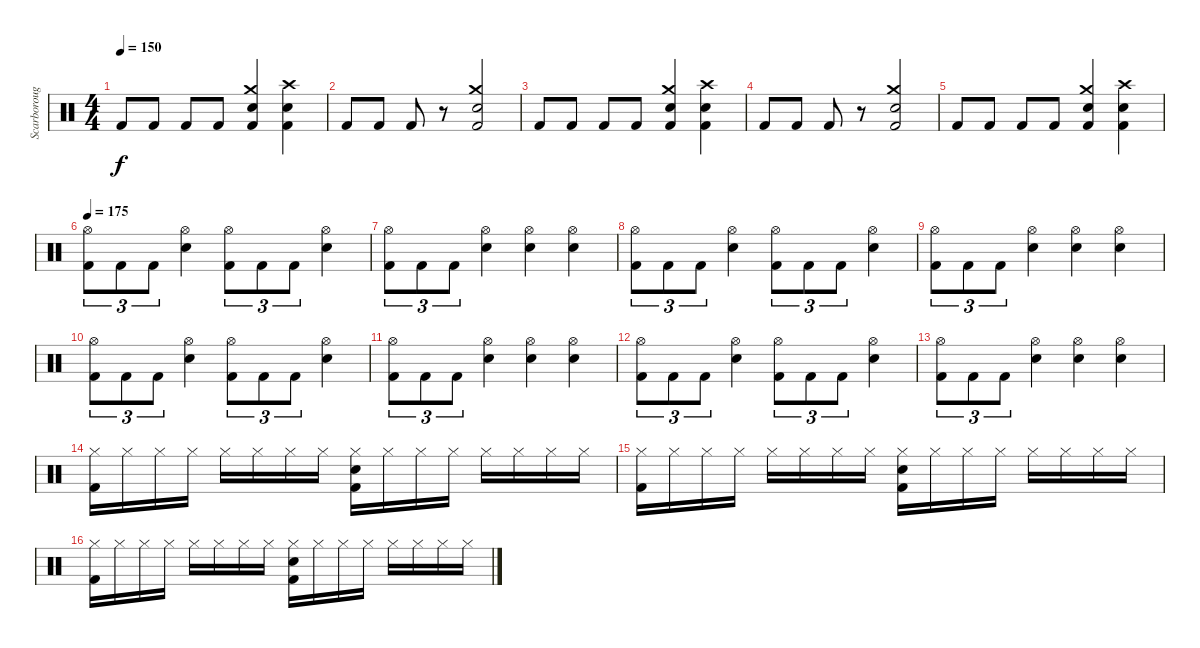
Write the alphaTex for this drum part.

\track ("Scarborough" "Scarboroug") {instrument percussion}
\staff {score}
\articulation defaults
\ts (4 4)
\tempo 150
\clef neutral
\ks c "Kick (hit) 2".8{dy f} "Kick (hit) 2".8 "Kick (hit) 2".8 "Kick (hit) 2".8
("Crash medium (hit)" "Kick (hit) 2" "Snare (hit) 2").4 ("Crash high (hit)" "Kick (hit) 2" "Snare (hit) 2").4 |
"Kick (hit) 2".8 "Kick (hit) 2".8 "Kick (hit) 2".8 r.8 ("Crash medium (hit)" "Kick (hit) 2" "Snare (hit) 2").2 |
"Kick (hit) 2".8 "Kick (hit) 2".8 "Kick (hit) 2".8 "Kick (hit) 2".8 ("Crash medium (hit)" "Kick (hit) 2" "Snare (hit) 2").4 ("Crash high (hit)" "Kick (hit) 2" "Snare (hit) 2").4 |
"Kick (hit) 2".8 "Kick (hit) 2".8 "Kick (hit) 2".8 r.8 ("Crash medium (hit)" "Kick (hit) 2" "Snare (hit) 2").2 |
"Kick (hit) 2".8 "Kick (hit) 2".8 "Kick (hit) 2".8 "Kick (hit) 2".8 ("Crash medium (hit)" "Kick (hit) 2" "Snare (hit) 2").4 ("Crash high (hit)" "Kick (hit) 2" "Snare (hit) 2").4 |
\tempo 175
("Hi-Hat (open)" "Kick (hit) 2").8{tu (3 2)} "Kick (hit) 2".8{tu (3 2)} "Kick (hit) 2".8{tu (3 2)} ("Hi-Hat (open)" "Snare (hit) 2").4 ("Hi-Hat (open)" "Kick (hit) 2").8{tu (3 2)} "Kick (hit) 2".8{tu (3 2)} "Kick (hit) 2".8{tu (3 2)} ("Hi-Hat (open)" "Snare (hit) 2").4 |
("Hi-Hat (open)" "Kick (hit) 2").8{tu (3 2)} "Kick (hit) 2".8{tu (3 2)} "Kick (hit) 2".8{tu (3 2)} ("Hi-Hat (open)" "Snare (hit) 2").4 ("Hi-Hat (open)" "Snare (hit) 2").4 ("Hi-Hat (open)" "Snare (hit) 2").4 |
("Hi-Hat (open)" "Kick (hit) 2").8{tu (3 2)} "Kick (hit) 2".8{tu (3 2)} "Kick (hit) 2".8{tu (3 2)} ("Hi-Hat (open)" "Snare (hit) 2").4 ("Hi-Hat (open)" "Kick (hit) 2").8{tu (3 2)} "Kick (hit) 2".8{tu (3 2)} "Kick (hit) 2".8{tu (3 2)} ("Hi-Hat (open)" "Snare (hit) 2").4 |
("Hi-Hat (open)" "Kick (hit) 2").8{tu (3 2)} "Kick (hit) 2".8{tu (3 2)} "Kick (hit) 2".8{tu (3 2)} ("Hi-Hat (open)" "Snare (hit) 2").4 ("Hi-Hat (open)" "Snare (hit) 2").4 ("Hi-Hat (open)" "Snare (hit) 2").4 |
("Hi-Hat (open)" "Kick (hit) 2").8{tu (3 2)} "Kick (hit) 2".8{tu (3 2)} "Kick (hit) 2".8{tu (3 2)} ("Hi-Hat (open)" "Snare (hit) 2").4 ("Hi-Hat (open)" "Kick (hit) 2").8{tu (3 2)} "Kick (hit) 2".8{tu (3 2)} "Kick (hit) 2".8{tu (3 2)} ("Hi-Hat (open)" "Snare (hit) 2").4 |
("Hi-Hat (open)" "Kick (hit) 2").8{tu (3 2)} "Kick (hit) 2".8{tu (3 2)} "Kick (hit) 2".8{tu (3 2)} ("Hi-Hat (open)" "Snare (hit) 2").4 ("Hi-Hat (open)" "Snare (hit) 2").4 ("Hi-Hat (open)" "Snare (hit) 2").4 |
("Hi-Hat (open)" "Kick (hit) 2").8{tu (3 2)} "Kick (hit) 2".8{tu (3 2)} "Kick (hit) 2".8{tu (3 2)} ("Hi-Hat (open)" "Snare (hit) 2").4 ("Hi-Hat (open)" "Kick (hit) 2").8{tu (3 2)} "Kick (hit) 2".8{tu (3 2)} "Kick (hit) 2".8{tu (3 2)} ("Hi-Hat (open)" "Snare (hit) 2").4 |
("Hi-Hat (open)" "Kick (hit) 2").8{tu (3 2)} "Kick (hit) 2".8{tu (3 2)} "Kick (hit) 2".8{tu (3 2)} ("Hi-Hat (open)" "Snare (hit) 2").4 ("Hi-Hat (open)" "Snare (hit) 2").4 ("Hi-Hat (open)" "Snare (hit) 2").4 |
("Hi-Hat (closed)" "Kick (hit) 2").16 "Hi-Hat (closed)".16 "Hi-Hat (closed)".16 "Hi-Hat (closed)".16 "Hi-Hat (closed)".16 "Hi-Hat (closed)".16 "Hi-Hat (closed)".16 "Hi-Hat (closed)".16 ("Hi-Hat (closed)" "Kick (hit) 2" "Snare (hit) 2").16 "Hi-Hat (closed)".16 "Hi-Hat (closed)".16 "Hi-Hat (closed)".16 "Hi-Hat (closed)".16 "Hi-Hat (closed)".16 "Hi-Hat (closed)".16 "Hi-Hat (closed)".16 |
("Hi-Hat (closed)" "Kick (hit) 2").16 "Hi-Hat (closed)".16 "Hi-Hat (closed)".16 "Hi-Hat (closed)".16 "Hi-Hat (closed)".16 "Hi-Hat (closed)".16 "Hi-Hat (closed)".16 "Hi-Hat (closed)".16 ("Hi-Hat (closed)" "Kick (hit) 2" "Snare (hit) 2").16 "Hi-Hat (closed)".16 "Hi-Hat (closed)".16 "Hi-Hat (closed)".16 "Hi-Hat (closed)".16 "Hi-Hat (closed)".16 "Hi-Hat (closed)".16 "Hi-Hat (closed)".16 |
("Hi-Hat (closed)" "Kick (hit) 2").16 "Hi-Hat (closed)".16 "Hi-Hat (closed)".16 "Hi-Hat (closed)".16 "Hi-Hat (closed)".16 "Hi-Hat (closed)".16 "Hi-Hat (closed)".16 "Hi-Hat (closed)".16 ("Hi-Hat (closed)" "Kick (hit) 2" "Snare (hit) 2").16 "Hi-Hat (closed)".16 "Hi-Hat (closed)".16 "Hi-Hat (closed)".16 "Hi-Hat (closed)".16 "Hi-Hat (closed)".16 "Hi-Hat (closed)".16 "Hi-Hat (closed)".16
